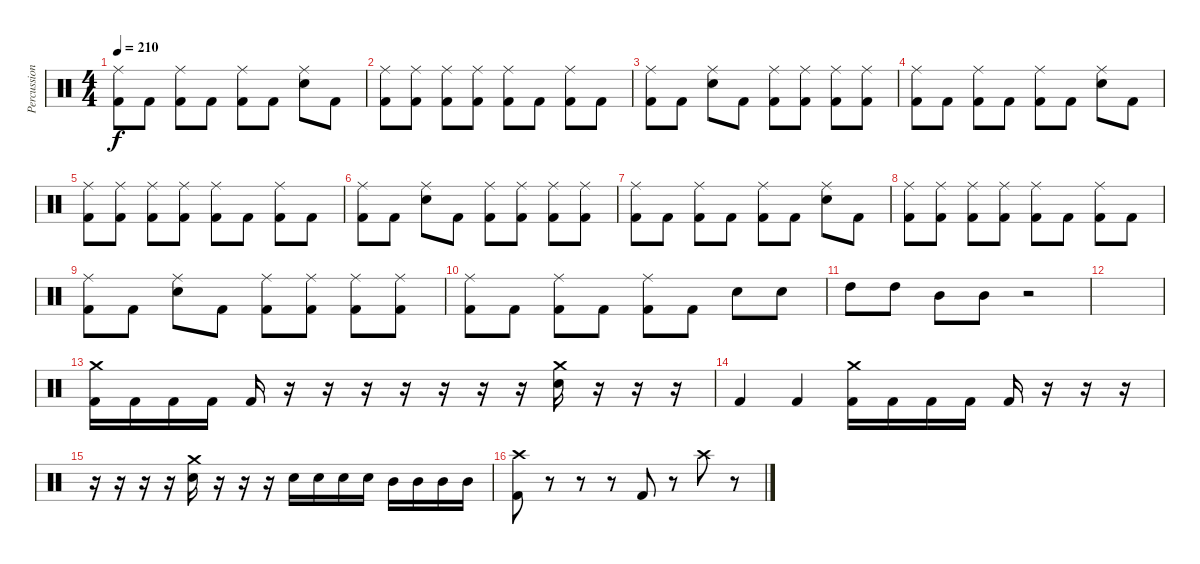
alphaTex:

\track ("Percussion" "Percussion") {instrument percussion}
\staff {score}
\articulation defaults
\ts (4 4)
\tempo 210
\clef neutral
\ks c
("Ride (middle)" "Kick (hit) 2").8{dy f} "Kick (hit) 2".8 ("Ride (middle)" "Kick (hit) 2").8 "Kick (hit) 2".8 ("Ride (middle)" "Kick (hit) 2").8 "Kick (hit) 2".8 ("Ride (middle)" "Snare (hit) 2").8 "Kick (hit) 2".8 |
("Ride (middle)" "Kick (hit) 2").8 ("Ride (middle)" "Kick (hit) 2").8 ("Ride (middle)" "Kick (hit) 2").8 ("Ride (middle)" "Kick (hit) 2").8 ("Ride (middle)" "Kick (hit) 2").8 "Kick (hit) 2".8 ("Ride (middle)" "Kick (hit) 2").8 "Kick (hit) 2".8 |
("Ride (middle)" "Kick (hit) 2").8 "Kick (hit) 2".8 ("Ride (middle)" "Snare (hit) 2").8 "Kick (hit) 2".8 ("Ride (middle)" "Kick (hit) 2").8 ("Ride (middle)" "Kick (hit) 2").8 ("Ride (middle)" "Kick (hit) 2").8 ("Ride (middle)" "Kick (hit) 2").8 |
("Ride (middle)" "Kick (hit) 2").8 "Kick (hit) 2".8 ("Ride (middle)" "Kick (hit) 2").8 "Kick (hit) 2".8 ("Ride (middle)" "Kick (hit) 2").8 "Kick (hit) 2".8 ("Ride (middle)" "Snare (hit) 2").8 "Kick (hit) 2".8 |
("Ride (middle)" "Kick (hit) 2").8 ("Ride (middle)" "Kick (hit) 2").8 ("Ride (middle)" "Kick (hit) 2").8 ("Ride (middle)" "Kick (hit) 2").8 ("Ride (middle)" "Kick (hit) 2").8 "Kick (hit) 2".8 ("Ride (middle)" "Kick (hit) 2").8 "Kick (hit) 2".8 |
("Ride (middle)" "Kick (hit) 2").8 "Kick (hit) 2".8 ("Ride (middle)" "Snare (hit) 2").8 "Kick (hit) 2".8 ("Ride (middle)" "Kick (hit) 2").8 ("Ride (middle)" "Kick (hit) 2").8 ("Ride (middle)" "Kick (hit) 2").8 ("Ride (middle)" "Kick (hit) 2").8 |
("Ride (middle)" "Kick (hit) 2").8 "Kick (hit) 2".8 ("Ride (middle)" "Kick (hit) 2").8 "Kick (hit) 2".8 ("Ride (middle)" "Kick (hit) 2").8 "Kick (hit) 2".8 ("Ride (middle)" "Snare (hit) 2").8 "Kick (hit) 2".8 |
("Ride (middle)" "Kick (hit) 2").8 ("Ride (middle)" "Kick (hit) 2").8 ("Ride (middle)" "Kick (hit) 2").8 ("Ride (middle)" "Kick (hit) 2").8 ("Ride (middle)" "Kick (hit) 2").8 "Kick (hit) 2".8 ("Ride (middle)" "Kick (hit) 2").8 "Kick (hit) 2".8 |
("Ride (middle)" "Kick (hit) 2").8 "Kick (hit) 2".8 ("Ride (middle)" "Snare (hit) 2").8 "Kick (hit) 2".8 ("Ride (middle)" "Kick (hit) 2").8 ("Ride (middle)" "Kick (hit) 2").8 ("Ride (middle)" "Kick (hit) 2").8 ("Ride (middle)" "Kick (hit) 2").8 |
("Ride (middle)" "Kick (hit) 2").8 "Kick (hit) 2".8 ("Ride (middle)" "Kick (hit) 2").8 "Kick (hit) 2".8 ("Ride (middle)" "Kick (hit) 2").8 "Kick (hit) 2".8 "Snare (hit) 2".8 "Snare (hit) 2".8 |
"High Tom (hit)".8 "High Tom (hit)".8 "Mid Tom (hit)".8 "Mid Tom (hit)".8 r.2 |
|
("Crash medium (hit)" "Kick (hit) 2").16 "Kick (hit) 2".16 "Kick (hit) 2".16 "Kick (hit) 2".16 "Kick (hit) 2".16 r.16 r.16 r.16 r.16 r.16 r.16 r.16 ("Crash medium (hit)" "Snare (hit) 2").16 r.16 r.16 r.16 |
"Kick (hit) 2".4 "Kick (hit) 2".4 ("Crash medium (hit)" "Kick (hit) 2").16 "Kick (hit) 2".16 "Kick (hit) 2".16 "Kick (hit) 2".16 "Kick (hit) 2".16 r.16 r.16 r.16 |
r.16 r.16 r.16 r.16 ("Crash medium (hit)" "Snare (hit) 2").16 r.16 r.16 r.16 "Snare (hit) 2".16 "Snare (hit) 2".16 "Snare (hit) 2".16 "Snare (hit) 2".16 "Mid Tom (hit)".16 "Mid Tom (hit)".16 "Mid Tom (hit)".16 "Mid Tom (hit)".16 |
("Crash high (hit)" "Kick (hit) 2").8 r.8 r.8 r.8 "Kick (hit) 2".8 r.8 "Crash high (hit)".8 r.8
